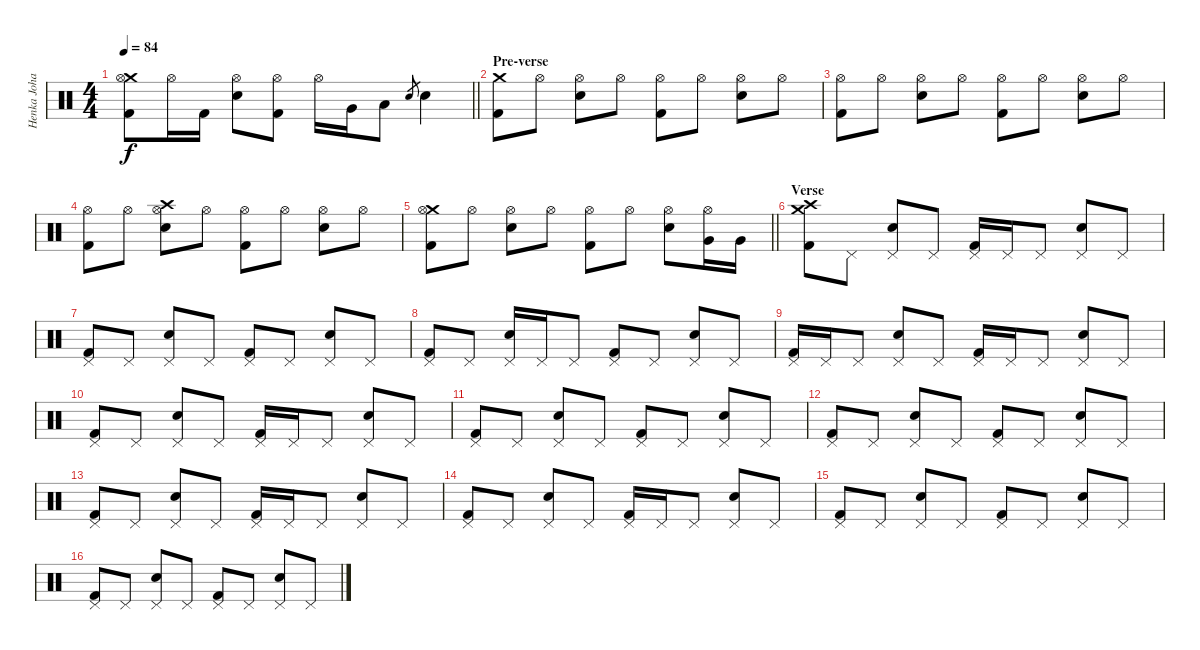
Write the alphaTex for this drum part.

\track ("Henka Johansson" "Henka Joha") {instrument percussion}
\staff {score}
\articulation defaults
\ts (4 4)
\tempo 84
\clef neutral
\barLineRight lightlight
\ks c
("Crash medium (hit)" "Hi-Hat (open)" "Kick (hit) 2").8{dy f} "Hi-Hat (open)".16 "Kick (hit) 2".16 ("Hi-Hat (open)" "Electric Snare (hit)").8 ("Hi-Hat (open)" "Kick (hit) 2").8 "Hi-Hat (open)".16 "Very Low Tom (hit)".16 "Low Floor Tom (hit)".8 "Electric Snare (hit)".8{gr} "Electric Snare (hit)".4 |
\section ("" "Pre-verse")
("Crash medium (hit)" "Kick (hit) 2").8 "Hi-Hat (open)".8 ("Hi-Hat (open)" "Electric Snare (hit)").8 "Hi-Hat (open)".8 ("Hi-Hat (open)" "Kick (hit) 2").8 "Hi-Hat (open)".8 ("Hi-Hat (open)" "Electric Snare (hit)").8 "Hi-Hat (open)".8 |
("Hi-Hat (open)" "Kick (hit) 2").8 "Hi-Hat (open)".8 ("Hi-Hat (open)" "Electric Snare (hit)").8 "Hi-Hat (open)".8 ("Hi-Hat (open)" "Kick (hit) 2").8 "Hi-Hat (open)".8 ("Hi-Hat (open)" "Electric Snare (hit)").8 "Hi-Hat (open)".8 |
("Hi-Hat (open)" "Kick (hit) 2").8 "Hi-Hat (open)".8 ("Crash high (hit)" "Hi-Hat (open)" "Electric Snare (hit)").8 "Hi-Hat (open)".8 ("Hi-Hat (open)" "Kick (hit) 2").8 "Hi-Hat (open)".8 ("Hi-Hat (open)" "Electric Snare (hit)").8 "Hi-Hat (open)".8 |
\barLineRight lightlight
("Crash medium (hit)" "Hi-Hat (open)" "Kick (hit) 2").8 "Hi-Hat (open)".8 ("Hi-Hat (open)" "Electric Snare (hit)").8 "Hi-Hat (open)".8 ("Hi-Hat (open)" "Kick (hit) 2").8 "Hi-Hat (open)".8 ("Hi-Hat (open)" "Electric Snare (hit)").8 ("Hi-Hat (open)" "Very Low Tom (hit)").16 "Very Low Tom (hit)".16 |
\section ("" "Verse")
("Crash medium (hit)" "Crash high (hit)" "Kick (hit) 2").8 "Pedal Hi-Hat (hit)".8 ("Pedal Hi-Hat (hit)" "Electric Snare (hit)").8 "Pedal Hi-Hat (hit)".8 ("Pedal Hi-Hat (hit)" "Kick (hit) 2").16 "Pedal Hi-Hat (hit)".16 "Pedal Hi-Hat (hit)".8 ("Pedal Hi-Hat (hit)" "Electric Snare (hit)").8 "Pedal Hi-Hat (hit)".8 |
("Pedal Hi-Hat (hit)" "Kick (hit) 2").8 "Pedal Hi-Hat (hit)".8 ("Pedal Hi-Hat (hit)" "Electric Snare (hit)").8 "Pedal Hi-Hat (hit)".8 ("Pedal Hi-Hat (hit)" "Kick (hit) 2").8 "Pedal Hi-Hat (hit)".8 ("Pedal Hi-Hat (hit)" "Electric Snare (hit)").8 "Pedal Hi-Hat (hit)".8 |
("Pedal Hi-Hat (hit)" "Kick (hit) 2").8 "Pedal Hi-Hat (hit)".8 ("Pedal Hi-Hat (hit)" "Electric Snare (hit)").16 "Pedal Hi-Hat (hit)".16 "Pedal Hi-Hat (hit)".8 ("Pedal Hi-Hat (hit)" "Kick (hit) 2").8 "Pedal Hi-Hat (hit)".8 ("Pedal Hi-Hat (hit)" "Electric Snare (hit)").8 "Pedal Hi-Hat (hit)".8 |
("Pedal Hi-Hat (hit)" "Kick (hit) 2").16 "Pedal Hi-Hat (hit)".16 "Pedal Hi-Hat (hit)".8 ("Pedal Hi-Hat (hit)" "Electric Snare (hit)").8 "Pedal Hi-Hat (hit)".8 ("Pedal Hi-Hat (hit)" "Kick (hit) 2").16 "Pedal Hi-Hat (hit)".16 "Pedal Hi-Hat (hit)".8 ("Pedal Hi-Hat (hit)" "Electric Snare (hit)").8 "Pedal Hi-Hat (hit)".8 |
("Pedal Hi-Hat (hit)" "Kick (hit) 2").8 "Pedal Hi-Hat (hit)".8 ("Pedal Hi-Hat (hit)" "Electric Snare (hit)").8 "Pedal Hi-Hat (hit)".8 ("Pedal Hi-Hat (hit)" "Kick (hit) 2").16 "Pedal Hi-Hat (hit)".16 "Pedal Hi-Hat (hit)".8 ("Pedal Hi-Hat (hit)" "Electric Snare (hit)").8 "Pedal Hi-Hat (hit)".8 |
("Pedal Hi-Hat (hit)" "Kick (hit) 2").8 "Pedal Hi-Hat (hit)".8 ("Pedal Hi-Hat (hit)" "Electric Snare (hit)").8 "Pedal Hi-Hat (hit)".8 ("Pedal Hi-Hat (hit)" "Kick (hit) 2").8 "Pedal Hi-Hat (hit)".8 ("Pedal Hi-Hat (hit)" "Electric Snare (hit)").8 "Pedal Hi-Hat (hit)".8 |
("Pedal Hi-Hat (hit)" "Kick (hit) 2").8 "Pedal Hi-Hat (hit)".8 ("Pedal Hi-Hat (hit)" "Electric Snare (hit)").8 "Pedal Hi-Hat (hit)".8 ("Pedal Hi-Hat (hit)" "Kick (hit) 2").8 "Pedal Hi-Hat (hit)".8 ("Pedal Hi-Hat (hit)" "Electric Snare (hit)").8 "Pedal Hi-Hat (hit)".8 |
("Pedal Hi-Hat (hit)" "Kick (hit) 2").8 "Pedal Hi-Hat (hit)".8 ("Pedal Hi-Hat (hit)" "Electric Snare (hit)").8 "Pedal Hi-Hat (hit)".8 ("Pedal Hi-Hat (hit)" "Kick (hit) 2").16 "Pedal Hi-Hat (hit)".16 "Pedal Hi-Hat (hit)".8 ("Pedal Hi-Hat (hit)" "Electric Snare (hit)").8 "Pedal Hi-Hat (hit)".8 |
("Pedal Hi-Hat (hit)" "Kick (hit) 2").8 "Pedal Hi-Hat (hit)".8 ("Pedal Hi-Hat (hit)" "Electric Snare (hit)").8 "Pedal Hi-Hat (hit)".8 ("Pedal Hi-Hat (hit)" "Kick (hit) 2").16 "Pedal Hi-Hat (hit)".16 "Pedal Hi-Hat (hit)".8 ("Pedal Hi-Hat (hit)" "Electric Snare (hit)").8 "Pedal Hi-Hat (hit)".8 |
("Pedal Hi-Hat (hit)" "Kick (hit) 2").8 "Pedal Hi-Hat (hit)".8 ("Pedal Hi-Hat (hit)" "Electric Snare (hit)").8 "Pedal Hi-Hat (hit)".8 ("Pedal Hi-Hat (hit)" "Kick (hit) 2").8 "Pedal Hi-Hat (hit)".8 ("Pedal Hi-Hat (hit)" "Electric Snare (hit)").8 "Pedal Hi-Hat (hit)".8 |
("Pedal Hi-Hat (hit)" "Kick (hit) 2").8 "Pedal Hi-Hat (hit)".8 ("Pedal Hi-Hat (hit)" "Electric Snare (hit)").8 "Pedal Hi-Hat (hit)".8 ("Pedal Hi-Hat (hit)" "Kick (hit) 2").8 "Pedal Hi-Hat (hit)".8 ("Pedal Hi-Hat (hit)" "Electric Snare (hit)").8 "Pedal Hi-Hat (hit)".8
